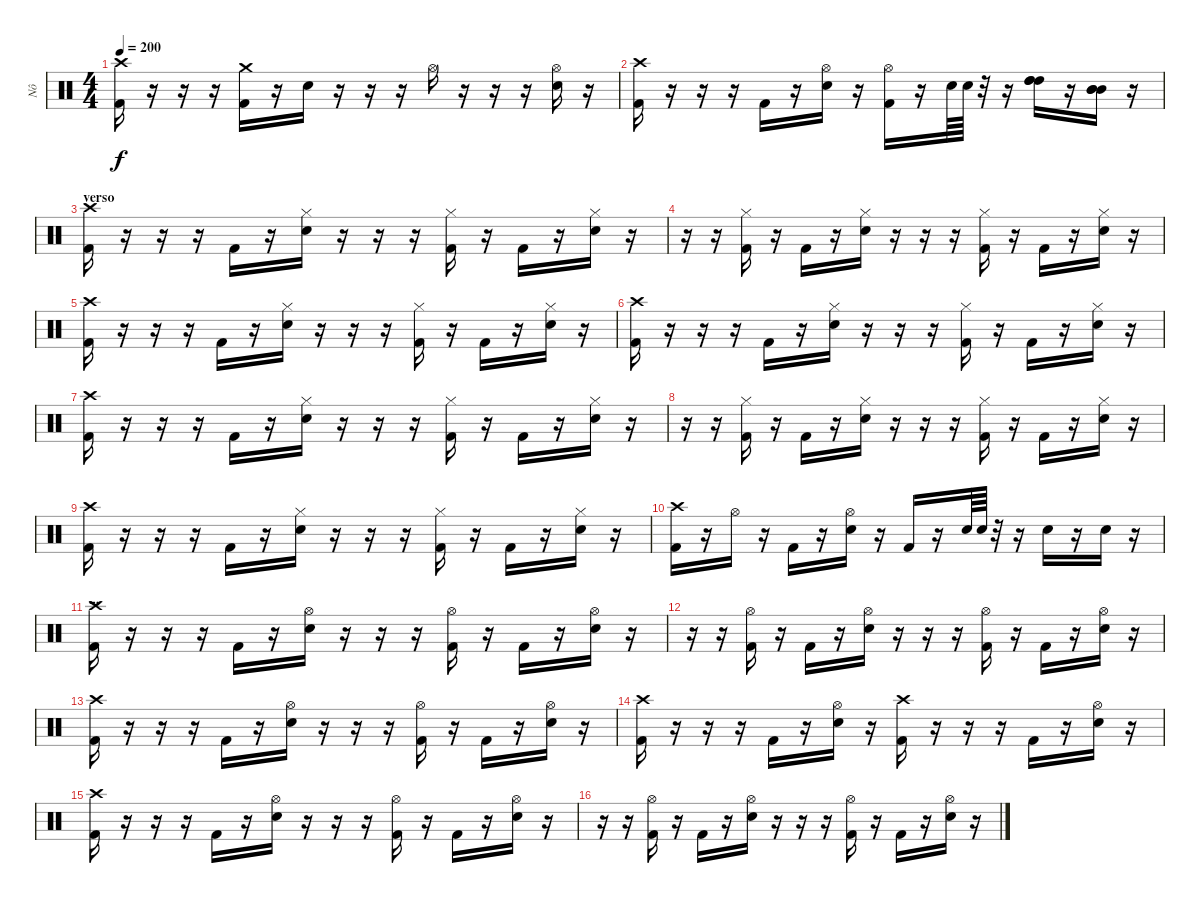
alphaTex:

\track ("Nô" "Nô") {instrument percussion}
\staff {score}
\articulation defaults
\ts (4 4)
\tempo 200
\clef neutral
\ks c
("Crash high (hit)" "Kick (hit) 2").16{dy f} r.16 r.16 r.16 ("Crash medium (hit)" "Kick (hit) 2").16 r.16 "Electric Snare (hit)".16 r.16 r.16 r.16 "Hi-Hat (open)".16 r.16 r.16 r.16 ("Hi-Hat (open)" "Electric Snare (hit)").16 r.16 |
("Crash high (hit)" "Kick (hit) 2").16 r.16 r.16 r.16 "Kick (hit) 2".16 r.16 ("Hi-Hat (open)" "Electric Snare (hit)").16 r.16 ("Hi-Hat (open)" "Kick (hit) 2").16 r.16 "Electric Snare (hit)".64 "Electric Snare (hit)".64 r.32 r.16 ("High Tom (hit)" "High Tom (hit)" "High Tom (hit)").16 r.16 ("Mid Tom (hit)" "Mid Tom (hit)" "Mid Tom (hit)").16 r.16 |
\section ("" "verso")
("Crash high (hit)" "Kick (hit) 2").16 r.16 r.16 r.16 "Kick (hit) 2".16 r.16 ("Hi-Hat (closed)" "Electric Snare (hit)").16 r.16 r.16 r.16 ("Hi-Hat (closed)" "Kick (hit) 2").16 r.16 "Kick (hit) 2".16 r.16 ("Hi-Hat (closed)" "Electric Snare (hit)").16 r.16 |
r.16 r.16 ("Hi-Hat (closed)" "Kick (hit) 2").16 r.16 "Kick (hit) 2".16 r.16 ("Hi-Hat (closed)" "Electric Snare (hit)").16 r.16 r.16 r.16 ("Hi-Hat (closed)" "Kick (hit) 2").16 r.16 "Kick (hit) 2".16 r.16 ("Hi-Hat (closed)" "Electric Snare (hit)").16 r.16 |
("Crash high (hit)" "Kick (hit) 2").16 r.16 r.16 r.16 "Kick (hit) 2".16 r.16 ("Hi-Hat (closed)" "Electric Snare (hit)").16 r.16 r.16 r.16 ("Hi-Hat (closed)" "Kick (hit) 2").16 r.16 "Kick (hit) 2".16 r.16 ("Hi-Hat (closed)" "Electric Snare (hit)").16 r.16 |
("Crash high (hit)" "Kick (hit) 2").16 r.16 r.16 r.16 "Kick (hit) 2".16 r.16 ("Hi-Hat (closed)" "Electric Snare (hit)").16 r.16 r.16 r.16 ("Hi-Hat (closed)" "Kick (hit) 2").16 r.16 "Kick (hit) 2".16 r.16 ("Hi-Hat (closed)" "Electric Snare (hit)").16 r.16 |
("Crash high (hit)" "Kick (hit) 2").16 r.16 r.16 r.16 "Kick (hit) 2".16 r.16 ("Hi-Hat (closed)" "Electric Snare (hit)").16 r.16 r.16 r.16 ("Hi-Hat (closed)" "Kick (hit) 2").16 r.16 "Kick (hit) 2".16 r.16 ("Hi-Hat (closed)" "Electric Snare (hit)").16 r.16 |
r.16 r.16 ("Hi-Hat (closed)" "Kick (hit) 2").16 r.16 "Kick (hit) 2".16 r.16 ("Hi-Hat (closed)" "Electric Snare (hit)").16 r.16 r.16 r.16 ("Hi-Hat (closed)" "Kick (hit) 2").16 r.16 "Kick (hit) 2".16 r.16 ("Hi-Hat (closed)" "Electric Snare (hit)").16 r.16 |
("Crash high (hit)" "Kick (hit) 2").16 r.16 r.16 r.16 "Kick (hit) 2".16 r.16 ("Hi-Hat (closed)" "Electric Snare (hit)").16 r.16 r.16 r.16 ("Hi-Hat (closed)" "Kick (hit) 2").16 r.16 "Kick (hit) 2".16 r.16 ("Hi-Hat (closed)" "Electric Snare (hit)").16 r.16 |
("Crash high (hit)" "Kick (hit) 2").16 r.16 "Hi-Hat (open)".16 r.16 "Kick (hit) 2".16 r.16 ("Hi-Hat (open)" "Electric Snare (hit)").16 r.16 "Kick (hit) 2".16 r.16 "Electric Snare (hit)".64 "Electric Snare (hit)".64 r.32 r.16 "Electric Snare (hit)".16 r.16 "Electric Snare (hit)".16 r.16 |
\section ("" "...")
("Crash high (hit)" "Kick (hit) 2").16 r.16 r.16 r.16 "Kick (hit) 2".16 r.16 ("Hi-Hat (open)" "Electric Snare (hit)").16 r.16 r.16 r.16 ("Hi-Hat (open)" "Kick (hit) 2").16 r.16 "Kick (hit) 2".16 r.16 ("Hi-Hat (open)" "Electric Snare (hit)").16 r.16 |
r.16 r.16 ("Hi-Hat (open)" "Kick (hit) 2").16 r.16 "Kick (hit) 2".16 r.16 ("Hi-Hat (open)" "Electric Snare (hit)").16 r.16 r.16 r.16 ("Hi-Hat (open)" "Kick (hit) 2").16 r.16 "Kick (hit) 2".16 r.16 ("Hi-Hat (open)" "Electric Snare (hit)").16 r.16 |
("Crash high (hit)" "Kick (hit) 2").16 r.16 r.16 r.16 "Kick (hit) 2".16 r.16 ("Hi-Hat (open)" "Electric Snare (hit)").16 r.16 r.16 r.16 ("Hi-Hat (open)" "Kick (hit) 2").16 r.16 "Kick (hit) 2".16 r.16 ("Hi-Hat (open)" "Electric Snare (hit)").16 r.16 |
("Crash high (hit)" "Kick (hit) 2").16 r.16 r.16 r.16 "Kick (hit) 2".16 r.16 ("Hi-Hat (open)" "Electric Snare (hit)").16 r.16 ("Crash high (hit)" "Kick (hit) 2").16 r.16 r.16 r.16 "Kick (hit) 2".16 r.16 ("Hi-Hat (open)" "Electric Snare (hit)").16 r.16 |
("Crash high (hit)" "Kick (hit) 2").16 r.16 r.16 r.16 "Kick (hit) 2".16 r.16 ("Hi-Hat (open)" "Electric Snare (hit)").16 r.16 r.16 r.16 ("Hi-Hat (open)" "Kick (hit) 2").16 r.16 "Kick (hit) 2".16 r.16 ("Hi-Hat (open)" "Electric Snare (hit)").16 r.16 |
r.16 r.16 ("Hi-Hat (open)" "Kick (hit) 2").16 r.16 "Kick (hit) 2".16 r.16 ("Hi-Hat (open)" "Electric Snare (hit)").16 r.16 r.16 r.16 ("Hi-Hat (open)" "Kick (hit) 2").16 r.16 "Kick (hit) 2".16 r.16 ("Hi-Hat (open)" "Electric Snare (hit)").16 r.16
